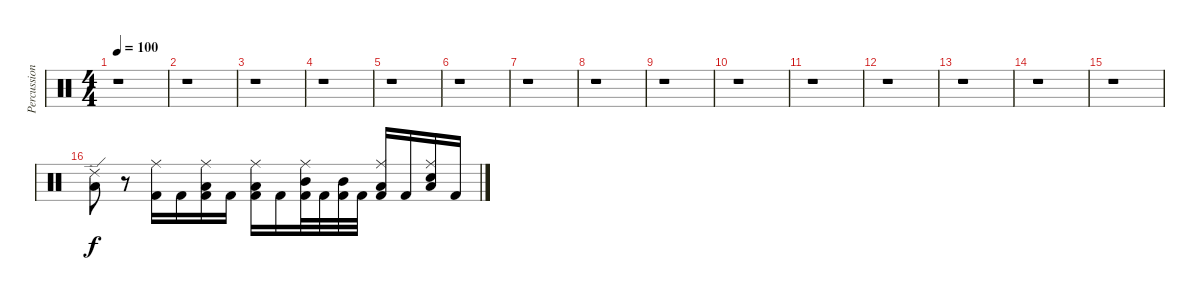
\track ("Percussion" "Percussion") {instrument percussion}
\staff {score}
\articulation defaults
\ts (4 4)
\tempo 100
\clef neutral
\ks c
r.1{dy f} |
r.1 |
r.1 |
r.1 |
r.1 |
r.1 |
r.1 |
r.1 |
r.1 |
r.1 |
r.1 |
r.1 |
r.1 |
r.1 |
r.1 |
("Ride (edge) 2" "Low Tom (hit)").8 r.8 ("Ride (middle)" "Kick (hit) 2").16 "Kick (hit) 2".16 ("Ride (middle)" "Low Tom (hit)" "Kick (hit) 2").16 "Kick (hit) 2".16 ("Ride (middle)" "Low Tom (hit)" "Kick (hit) 2").16 "Kick (hit) 2".16 ("Ride (middle)" "Mid Tom (hit)" "Kick (hit) 2").32 "Kick (hit) 2".32 ("Mid Tom (hit)" "Kick (hit) 2").32 "Kick (hit) 2".32 ("Ride (middle)" "Low Tom (hit)" "Kick (hit) 2").16 "Kick (hit) 2".16 ("Ride (middle)" "Low Tom (hit)" "Electric Snare (hit)").16 "Kick (hit) 2".16
